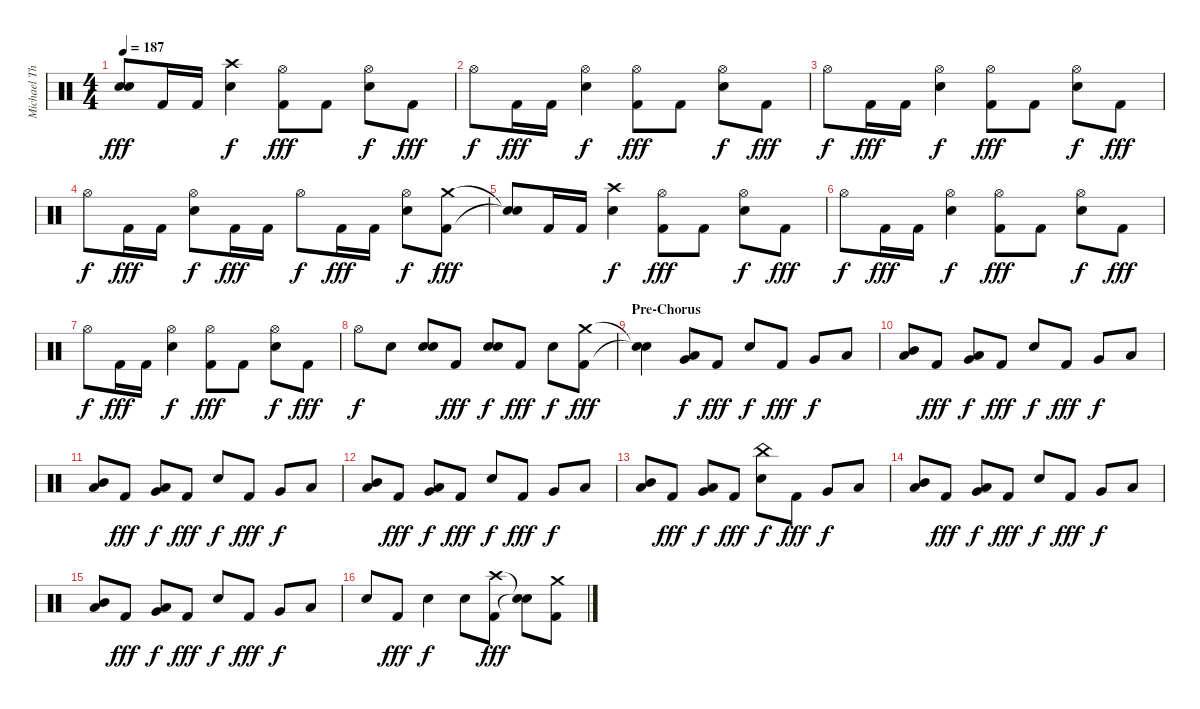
\track ("Michael Thomas" "Michael Th") {instrument percussion}
\staff {score}
\articulation defaults
\ts (4 4)
\tempo 187
\clef neutral
\ks c
("Snare (hit)"{t} "Snare (hit)"{t}).8{dy fff} "Kick (hit) 2".16 "Kick (hit) 2".16 ("Crash high (hit)" "Electric Snare (hit)").4{dy f} ("Hi-Hat (open)" "Kick (hit) 2").8{dy fff} "Kick (hit) 2".8 ("Hi-Hat (open)" "Electric Snare (hit)").8{dy f} "Kick (hit) 2".8{dy fff} |
"Hi-Hat (open)".8{dy f} "Kick (hit) 2".16{dy fff} "Kick (hit) 2".16 ("Hi-Hat (open)" "Electric Snare (hit)").4{dy f} ("Hi-Hat (open)" "Kick (hit) 2").8{dy fff} "Kick (hit) 2".8 ("Hi-Hat (open)" "Electric Snare (hit)").8{dy f} "Kick (hit) 2".8{dy fff} |
"Hi-Hat (open)".8{dy f} "Kick (hit) 2".16{dy fff} "Kick (hit) 2".16 ("Hi-Hat (open)" "Electric Snare (hit)").4{dy f} ("Hi-Hat (open)" "Kick (hit) 2").8{dy fff} "Kick (hit) 2".8 ("Hi-Hat (open)" "Electric Snare (hit)").8{dy f} "Kick (hit) 2".8{dy fff} |
"Hi-Hat (open)".8{dy f} "Kick (hit) 2".16{dy fff} "Kick (hit) 2".16 ("Hi-Hat (open)" "Electric Snare (hit)").8{dy f} "Kick (hit) 2".16{dy fff} "Kick (hit) 2".16 "Hi-Hat (open)".8{dy f} "Kick (hit) 2".16{dy fff} "Kick (hit) 2".16 ("Hi-Hat (open)" "Electric Snare (hit)").8{dy f} ("Crash medium (hit)" "Kick (hit) 2").8{dy fff} |
("Snare (hit)"{t} "Snare (hit)"{t}).8 "Kick (hit) 2".16 "Kick (hit) 2".16 ("Crash high (hit)" "Electric Snare (hit)").4{dy f} ("Hi-Hat (open)" "Kick (hit) 2").8{dy fff} "Kick (hit) 2".8 ("Hi-Hat (open)" "Electric Snare (hit)").8{dy f} "Kick (hit) 2".8{dy fff} |
"Hi-Hat (open)".8{dy f} "Kick (hit) 2".16{dy fff} "Kick (hit) 2".16 ("Hi-Hat (open)" "Electric Snare (hit)").4{dy f} ("Hi-Hat (open)" "Kick (hit) 2").8{dy fff} "Kick (hit) 2".8 ("Hi-Hat (open)" "Electric Snare (hit)").8{dy f} "Kick (hit) 2".8{dy fff} |
"Hi-Hat (open)".8{dy f} "Kick (hit) 2".16{dy fff} "Kick (hit) 2".16 ("Hi-Hat (open)" "Electric Snare (hit)").4{dy f} ("Hi-Hat (open)" "Kick (hit) 2").8{dy fff} "Kick (hit) 2".8 ("Hi-Hat (open)" "Electric Snare (hit)").8{dy f} "Kick (hit) 2".8{dy fff} |
"Hi-Hat (open)".8{dy f} "Electric Snare (hit)".8 ("Electric Snare (hit)" "Electric Snare (hit)").8{bd 120} "Kick (hit) 2".8{dy fff} ("Electric Snare (hit)" "Electric Snare (hit)").8{bd 120 dy f} "Kick (hit) 2".8{dy fff} "Electric Snare (hit)".8{dy f} ("Crash medium (hit)" "Kick (hit) 2").8{dy fff} |
\section ("" "Pre-Chorus")
("Snare (hit)"{t} "Snare (hit)"{t}).4 ("Low Tom (hit)" "Very Low Tom (hit)").8{dy f} "Kick (hit) 2".8{dy fff} "Electric Snare (hit)".8{dy f} "Kick (hit) 2".8{dy fff} "Very Low Tom (hit)".8{dy f} "Low Floor Tom (hit)".8 |
("Mid Tom (hit)" "Low Tom (hit)").8 "Kick (hit) 2".8{dy fff} ("Low Tom (hit)" "Very Low Tom (hit)").8{dy f} "Kick (hit) 2".8{dy fff} "Electric Snare (hit)".8{dy f} "Kick (hit) 2".8{dy fff} "Very Low Tom (hit)".8{dy f} "Low Floor Tom (hit)".8 |
("Mid Tom (hit)" "Low Tom (hit)").8 "Kick (hit) 2".8{dy fff} ("Low Tom (hit)" "Very Low Tom (hit)").8{dy f} "Kick (hit) 2".8{dy fff} "Electric Snare (hit)".8{dy f} "Kick (hit) 2".8{dy fff} "Very Low Tom (hit)".8{dy f} "Low Floor Tom (hit)".8 |
("Mid Tom (hit)" "Low Tom (hit)").8 "Kick (hit) 2".8{dy fff} ("Low Tom (hit)" "Very Low Tom (hit)").8{dy f} "Kick (hit) 2".8{dy fff} "Electric Snare (hit)".8{dy f} "Kick (hit) 2".8{dy fff} "Very Low Tom (hit)".8{dy f} "Low Floor Tom (hit)".8 |
("Mid Tom (hit)" "Low Tom (hit)").8 "Kick (hit) 2".8{dy fff} ("Low Tom (hit)" "Very Low Tom (hit)").8{dy f} "Kick (hit) 2".8{dy fff} ("China (hit)" "Electric Snare (hit)").8{dy f} "Kick (hit) 2".8{dy fff} "Very Low Tom (hit)".8{dy f} "Low Floor Tom (hit)".8 |
("Mid Tom (hit)" "Low Tom (hit)").8 "Kick (hit) 2".8{dy fff} ("Low Tom (hit)" "Very Low Tom (hit)").8{dy f} "Kick (hit) 2".8{dy fff} "Electric Snare (hit)".8{dy f} "Kick (hit) 2".8{dy fff} "Very Low Tom (hit)".8{dy f} "Low Floor Tom (hit)".8 |
("Mid Tom (hit)" "Low Tom (hit)").8 "Kick (hit) 2".8{dy fff} ("Low Tom (hit)" "Very Low Tom (hit)").8{dy f} "Kick (hit) 2".8{dy fff} "Electric Snare (hit)".8{dy f} "Kick (hit) 2".8{dy fff} "Very Low Tom (hit)".8{dy f} "Low Floor Tom (hit)".8 |
"Electric Snare (hit)".8 "Kick (hit) 2".8{dy fff} "Electric Snare (hit)".4{dy f} "Electric Snare (hit)".8 ("Crash high (hit)" "Kick (hit) 2").8{dy fff} ("Snare (hit)"{t} "Snare (hit)"{t}).8 ("Crash medium (hit)" "Kick (hit) 2").8
